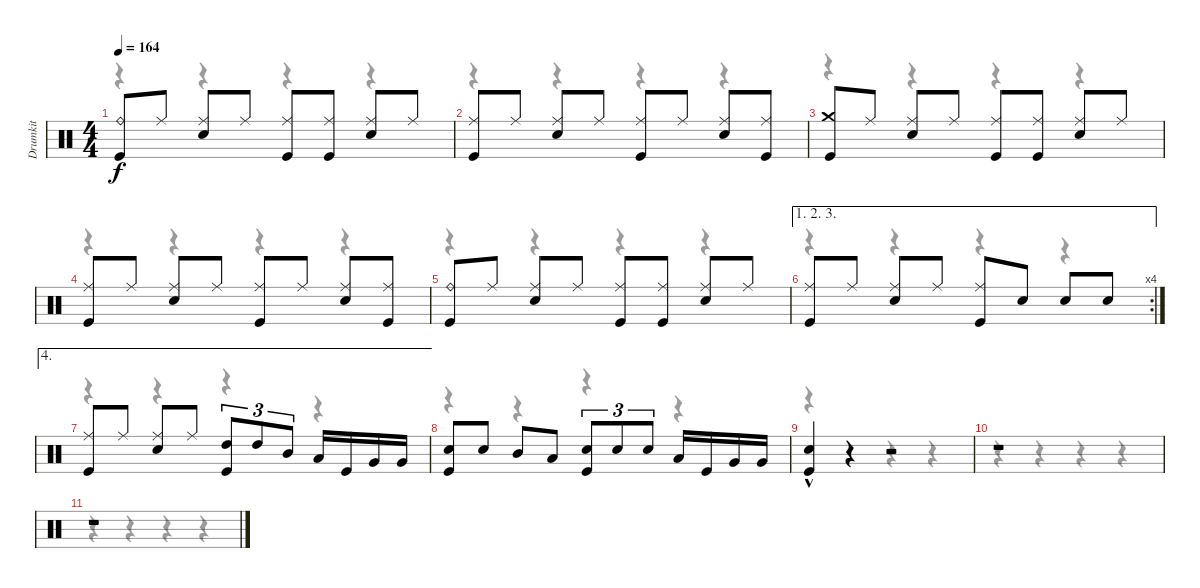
\track ("Drumkit" "Drumkit") {instrument percussion}
\staff {score}
\articulation defaults
\voice
\ts (4 4)
\tempo 164
\clef neutral
\ks c
("Ride (bell)" "Kick (hit)").8{dy f} "Ride (middle)".8 ("Ride (middle)" "Snare (hit) 2").8 "Ride (middle)".8 ("Ride (middle)" "Kick (hit)").8 ("Ride (middle)" "Kick (hit)").8 ("Ride (middle)" "Snare (hit) 2").8 "Ride (middle)".8 |
("Ride (middle)" "Kick (hit)").8 "Ride (middle)".8 ("Ride (middle)" "Snare (hit) 2").8 "Ride (middle)".8 ("Ride (middle)" "Kick (hit)").8 "Ride (middle)".8 ("Ride (middle)" "Snare (hit) 2").8 ("Ride (middle)" "Kick (hit)").8 |
("Crash medium (hit)" "Kick (hit)").8 "Ride (middle)".8 ("Ride (middle)" "Snare (hit) 2").8 "Ride (middle)".8 ("Ride (middle)" "Kick (hit)").8 ("Ride (middle)" "Kick (hit)").8 ("Ride (middle)" "Snare (hit) 2").8 "Ride (middle)".8 |
("Ride (middle)" "Kick (hit)").8 "Ride (middle)".8 ("Ride (middle)" "Snare (hit) 2").8 "Ride (middle)".8 ("Ride (middle)" "Kick (hit)").8 "Ride (middle)".8 ("Ride (middle)" "Snare (hit) 2").8 ("Ride (middle)" "Kick (hit)").8 |
("Ride (bell)" "Kick (hit)").8 "Ride (middle)".8 ("Ride (middle)" "Snare (hit) 2").8 "Ride (middle)".8 ("Ride (middle)" "Kick (hit)").8 ("Ride (middle)" "Kick (hit)").8 ("Ride (middle)" "Snare (hit) 2").8 "Ride (middle)".8 |
\ae (1 2 3)
\rc 4
("Ride (middle)" "Kick (hit)").8 "Ride (middle)".8 ("Ride (middle)" "Snare (hit) 2").8 "Ride (middle)".8 ("Ride (middle)" "Kick (hit)").8 "Snare (hit) 2".8 "Snare (hit) 2".8 "Snare (hit) 2".8 |
\ae 4
("Ride (middle)" "Kick (hit)").8 "Ride (middle)".8 ("Ride (middle)" "Snare (hit) 2").8 "Ride (middle)".8 ("High Tom (hit)" "Kick (hit)").8{tu (3 2)} "High Tom (hit)".8{tu (3 2)} "Mid Tom (hit)".8{tu (3 2)} "Low Tom (hit)".16 "Kick (hit)".16 "Very Low Tom (hit)".16 "Very Low Tom (hit)".16 |
("Snare (hit) 2" "Kick (hit)").8 "Snare (hit) 2".8 "Mid Tom (hit)".8 "Low Tom (hit)".8 ("Snare (hit) 2" "Kick (hit)").8{tu (3 2)} "Snare (hit) 2".8{tu (3 2)} "Snare (hit) 2".8{tu (3 2)} "Low Tom (hit)".16 "Kick (hit)".16 "Very Low Tom (hit)".16 "Very Low Tom (hit)".16 |
("Snare (hit) 2"{hac} "Kick (hit)"{hac}).4 r.4 r.2 |
r.1 |
r.1
\voice
\clef neutral
\ottava regular
\simile none
\ks c
r.4{dy f} r.4 r.4 r.4 |
r.4 r.4 r.4 r.4 |
r.4 r.4 r.4 r.4 |
r.4 r.4 r.4 r.4 |
r.4 r.4 r.4 r.4 |
r.4 r.4 r.4 r.4 |
r.4 r.4 r.4 r.4 |
r.4 r.4 r.4 r.4 |
r.4 r.4 r.4 r.4 |
r.4 r.4 r.4 r.4 |
r.4 r.4 r.4 r.4
